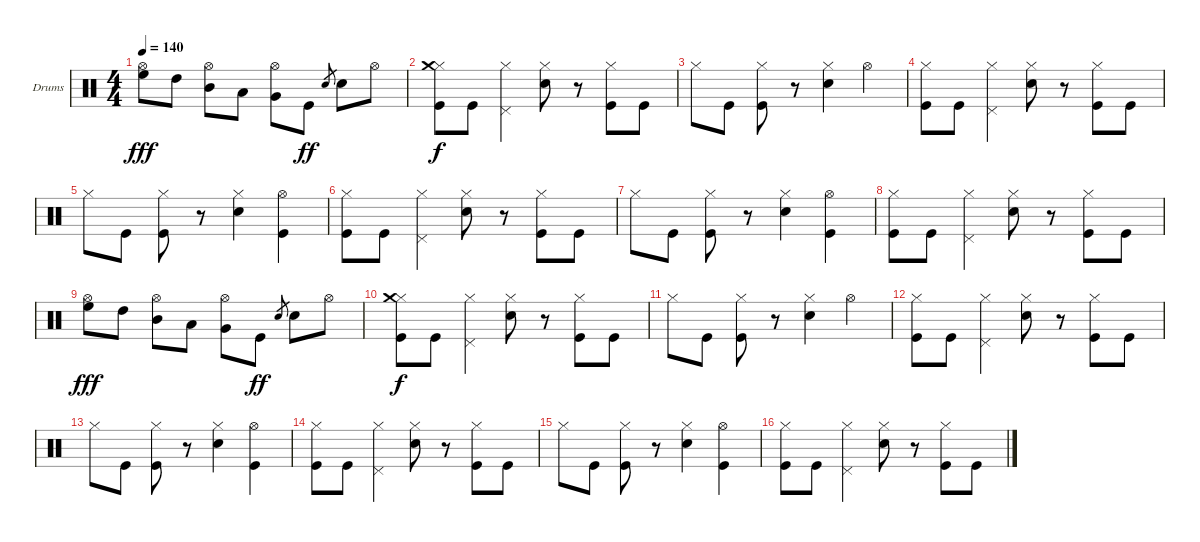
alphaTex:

\defaultSystemsLayout 4
\bracketExtendMode groupsimilarinstruments
\firstSystemTrackNameOrientation horizontal
\otherSystemsTrackNameOrientation horizontal
\track ("Drumkit" "Drums") {instrument percussion}
\staff {score}
\articulation defaults
\ts (4 4)
\tempo 140
\clef neutral
\scale
0.333333
\ks c
("High Floor Tom (hit)" "Hi-Hat (open)").8{dy fff} "High Tom (hit)".8 ("Mid Tom (hit)" "Hi-Hat (open)").8 "Low Tom (hit)".8 ("Very Low Tom (hit)" "Hi-Hat (open)").8 "Kick (hit)".8{dy ff} "Snare (hit) 2".8{gr} "Snare (hit) 2".8 "Hi-Hat (open)".8 |
\scale
0.333333 ("Kick (hit)" "Hi-Hat (closed)" "Crash medium (hit)").8{dy f} "Kick (hit)".8 ("Pedal Hi-Hat (hit)" "Hi-Hat (closed)").4 ("Snare (hit) 2" "Hi-Hat (closed)").8 r.8 ("Kick (hit)" "Hi-Hat (closed)").8 "Kick (hit)".8 |
\scale
0.333333 "Hi-Hat (closed)".8 "Kick (hit)".8 ("Kick (hit)" "Hi-Hat (closed)").8 r.8 ("Snare (hit) 2" "Hi-Hat (closed)").4 "Hi-Hat (open)".4 |
\scale
0.333333 ("Kick (hit)" "Hi-Hat (closed)").8 "Kick (hit)".8 ("Pedal Hi-Hat (hit)" "Hi-Hat (closed)").4 ("Snare (hit) 2" "Hi-Hat (closed)").8 r.8 ("Kick (hit)" "Hi-Hat (closed)").8 "Kick (hit)".8 |
\scale
0.333333 "Hi-Hat (closed)".8 "Kick (hit)".8 ("Kick (hit)" "Hi-Hat (closed)").8 r.8 ("Snare (hit) 2" "Hi-Hat (closed)").4 ("Hi-Hat (open)" "Kick (hit)").4 |
\scale
0.333333 ("Kick (hit)" "Hi-Hat (closed)").8 "Kick (hit)".8 ("Pedal Hi-Hat (hit)" "Hi-Hat (closed)").4 ("Snare (hit) 2" "Hi-Hat (closed)").8 r.8 ("Kick (hit)" "Hi-Hat (closed)").8 "Kick (hit)".8 |
\scale
0.333333 "Hi-Hat (closed)".8 "Kick (hit)".8 ("Kick (hit)" "Hi-Hat (closed)").8 r.8 ("Snare (hit) 2" "Hi-Hat (closed)").4 ("Hi-Hat (open)" "Kick (hit)").4 |
\scale
0.333333 ("Kick (hit)" "Hi-Hat (closed)").8 "Kick (hit)".8 ("Pedal Hi-Hat (hit)" "Hi-Hat (closed)").4 ("Snare (hit) 2" "Hi-Hat (closed)").8 r.8 ("Kick (hit)" "Hi-Hat (closed)").8 "Kick (hit)".8 |
\scale
0.333333 ("High Floor Tom (hit)" "Hi-Hat (open)").8{dy fff} "High Tom (hit)".8 ("Mid Tom (hit)" "Hi-Hat (open)").8 "Low Tom (hit)".8 ("Very Low Tom (hit)" "Hi-Hat (open)").8 "Kick (hit)".8{dy ff} "Snare (hit) 2".8{gr} "Snare (hit) 2".8 "Hi-Hat (open)".8 |
\scale
0.333333 ("Kick (hit)" "Hi-Hat (closed)" "Crash medium (hit)").8{dy f} "Kick (hit)".8 ("Pedal Hi-Hat (hit)" "Hi-Hat (closed)").4 ("Snare (hit) 2" "Hi-Hat (closed)").8 r.8 ("Kick (hit)" "Hi-Hat (closed)").8 "Kick (hit)".8 |
\scale
0.333333 "Hi-Hat (closed)".8 "Kick (hit)".8 ("Kick (hit)" "Hi-Hat (closed)").8 r.8 ("Snare (hit) 2" "Hi-Hat (closed)").4 "Hi-Hat (open)".4 |
\scale
0.333333 ("Kick (hit)" "Hi-Hat (closed)").8 "Kick (hit)".8 ("Pedal Hi-Hat (hit)" "Hi-Hat (closed)").4 ("Snare (hit) 2" "Hi-Hat (closed)").8 r.8 ("Kick (hit)" "Hi-Hat (closed)").8 "Kick (hit)".8 |
\scale
0.333333 "Hi-Hat (closed)".8 "Kick (hit)".8 ("Kick (hit)" "Hi-Hat (closed)").8 r.8 ("Snare (hit) 2" "Hi-Hat (closed)").4 ("Hi-Hat (open)" "Kick (hit)").4 |
\scale
0.333333 ("Kick (hit)" "Hi-Hat (closed)").8 "Kick (hit)".8 ("Pedal Hi-Hat (hit)" "Hi-Hat (closed)").4 ("Snare (hit) 2" "Hi-Hat (closed)").8 r.8 ("Kick (hit)" "Hi-Hat (closed)").8 "Kick (hit)".8 |
\scale
0.333333 "Hi-Hat (closed)".8 "Kick (hit)".8 ("Kick (hit)" "Hi-Hat (closed)").8 r.8 ("Snare (hit) 2" "Hi-Hat (closed)").4 ("Hi-Hat (open)" "Kick (hit)").4 |
\scale
0.333333 ("Kick (hit)" "Hi-Hat (closed)").8 "Kick (hit)".8 ("Pedal Hi-Hat (hit)" "Hi-Hat (closed)").4 ("Snare (hit) 2" "Hi-Hat (closed)").8 r.8 ("Kick (hit)" "Hi-Hat (closed)").8 "Kick (hit)".8
